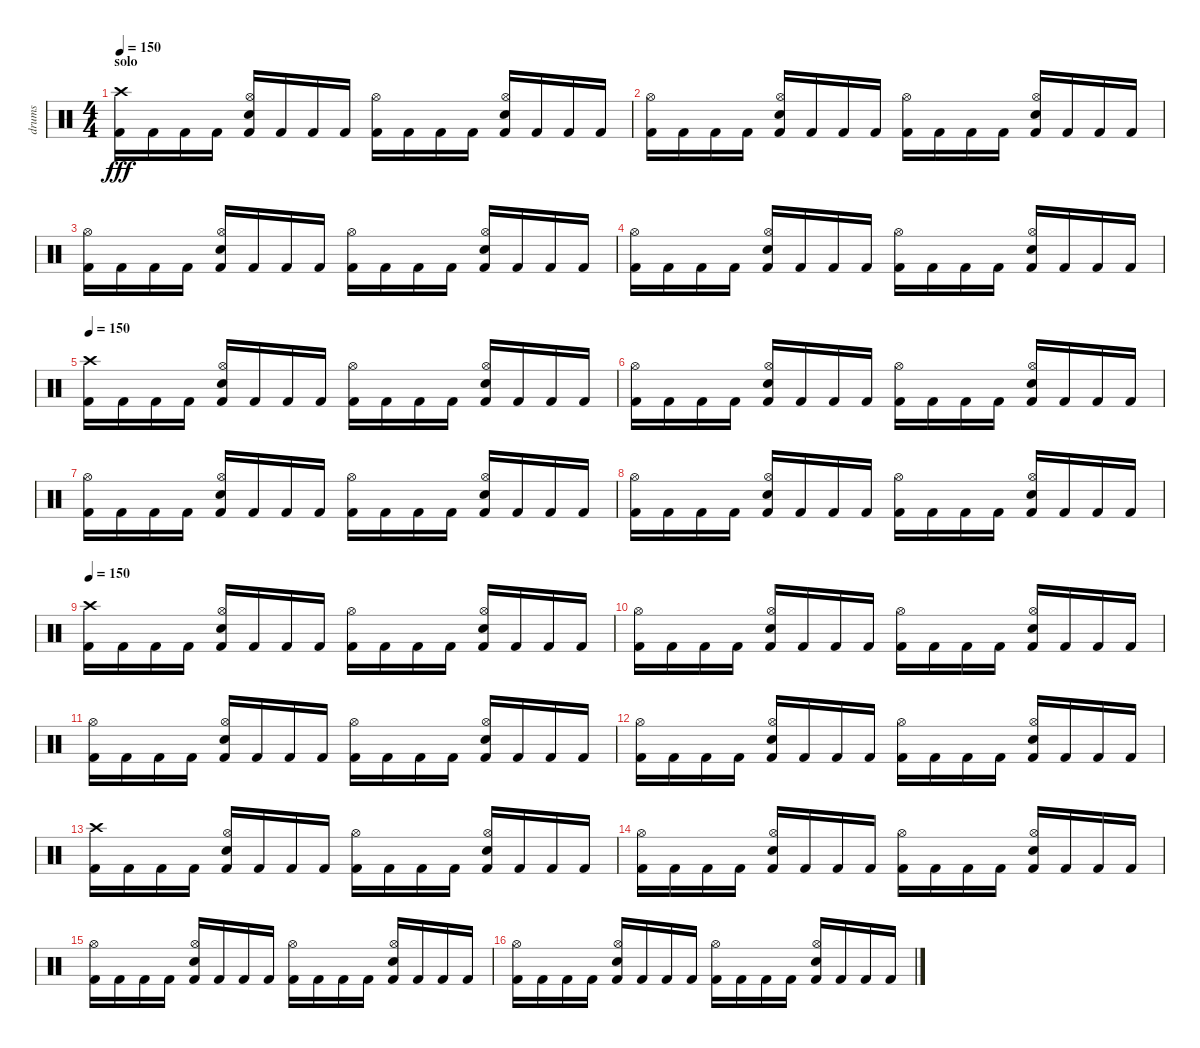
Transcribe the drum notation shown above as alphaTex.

\track ("drums" "drums") {instrument percussion}
\staff {score}
\articulation defaults
\ts (4 4)
\section ("" "solo")
\tempo 150
\clef neutral
\ks c
("Crash high (hit)" "Kick (hit) 2").16{dy fff} "Kick (hit) 2".16 "Kick (hit) 2".16 "Kick (hit) 2".16 ("Hi-Hat (open)" "Snare (hit) 2" "Kick (hit) 2").16 "Kick (hit) 2".16 "Kick (hit) 2".16 "Kick (hit) 2".16 ("Hi-Hat (open)" "Kick (hit) 2").16 "Kick (hit) 2".16 "Kick (hit) 2".16 "Kick (hit) 2".16 ("Hi-Hat (open)" "Snare (hit) 2" "Kick (hit) 2").16 "Kick (hit) 2".16 "Kick (hit) 2".16 "Kick (hit) 2".16 |
("Hi-Hat (open)" "Kick (hit) 2").16 "Kick (hit) 2".16 "Kick (hit) 2".16 "Kick (hit) 2".16 ("Hi-Hat (open)" "Snare (hit) 2" "Kick (hit) 2").16 "Kick (hit) 2".16 "Kick (hit) 2".16 "Kick (hit) 2".16 ("Hi-Hat (open)" "Kick (hit) 2").16 "Kick (hit) 2".16 "Kick (hit) 2".16 "Kick (hit) 2".16 ("Hi-Hat (open)" "Snare (hit) 2" "Kick (hit) 2").16 "Kick (hit) 2".16 "Kick (hit) 2".16 "Kick (hit) 2".16 |
("Hi-Hat (open)" "Kick (hit) 2").16 "Kick (hit) 2".16 "Kick (hit) 2".16 "Kick (hit) 2".16 ("Hi-Hat (open)" "Snare (hit) 2" "Kick (hit) 2").16 "Kick (hit) 2".16 "Kick (hit) 2".16 "Kick (hit) 2".16 ("Hi-Hat (open)" "Kick (hit) 2").16 "Kick (hit) 2".16 "Kick (hit) 2".16 "Kick (hit) 2".16 ("Hi-Hat (open)" "Snare (hit) 2" "Kick (hit) 2").16 "Kick (hit) 2".16 "Kick (hit) 2".16 "Kick (hit) 2".16 |
("Hi-Hat (open)" "Kick (hit) 2").16 "Kick (hit) 2".16 "Kick (hit) 2".16 "Kick (hit) 2".16 ("Hi-Hat (open)" "Snare (hit) 2" "Kick (hit) 2").16 "Kick (hit) 2".16 "Kick (hit) 2".16 "Kick (hit) 2".16 ("Hi-Hat (open)" "Kick (hit) 2").16 "Kick (hit) 2".16 "Kick (hit) 2".16 "Kick (hit) 2".16 ("Hi-Hat (open)" "Snare (hit) 2" "Kick (hit) 2").16 "Kick (hit) 2".16 "Kick (hit) 2".16 "Kick (hit) 2".16 |
\tempo 150
("Crash high (hit)" "Kick (hit) 2").16 "Kick (hit) 2".16 "Kick (hit) 2".16 "Kick (hit) 2".16 ("Hi-Hat (open)" "Snare (hit) 2" "Kick (hit) 2").16 "Kick (hit) 2".16 "Kick (hit) 2".16 "Kick (hit) 2".16 ("Hi-Hat (open)" "Kick (hit) 2").16 "Kick (hit) 2".16 "Kick (hit) 2".16 "Kick (hit) 2".16 ("Hi-Hat (open)" "Snare (hit) 2" "Kick (hit) 2").16 "Kick (hit) 2".16 "Kick (hit) 2".16 "Kick (hit) 2".16 |
("Hi-Hat (open)" "Kick (hit) 2").16 "Kick (hit) 2".16 "Kick (hit) 2".16 "Kick (hit) 2".16 ("Hi-Hat (open)" "Snare (hit) 2" "Kick (hit) 2").16 "Kick (hit) 2".16 "Kick (hit) 2".16 "Kick (hit) 2".16 ("Hi-Hat (open)" "Kick (hit) 2").16 "Kick (hit) 2".16 "Kick (hit) 2".16 "Kick (hit) 2".16 ("Hi-Hat (open)" "Snare (hit) 2" "Kick (hit) 2").16 "Kick (hit) 2".16 "Kick (hit) 2".16 "Kick (hit) 2".16 |
("Hi-Hat (open)" "Kick (hit) 2").16 "Kick (hit) 2".16 "Kick (hit) 2".16 "Kick (hit) 2".16 ("Hi-Hat (open)" "Snare (hit) 2" "Kick (hit) 2").16 "Kick (hit) 2".16 "Kick (hit) 2".16 "Kick (hit) 2".16 ("Hi-Hat (open)" "Kick (hit) 2").16 "Kick (hit) 2".16 "Kick (hit) 2".16 "Kick (hit) 2".16 ("Hi-Hat (open)" "Snare (hit) 2" "Kick (hit) 2").16 "Kick (hit) 2".16 "Kick (hit) 2".16 "Kick (hit) 2".16 |
("Hi-Hat (open)" "Kick (hit) 2").16 "Kick (hit) 2".16 "Kick (hit) 2".16 "Kick (hit) 2".16 ("Hi-Hat (open)" "Snare (hit) 2" "Kick (hit) 2").16 "Kick (hit) 2".16 "Kick (hit) 2".16 "Kick (hit) 2".16 ("Hi-Hat (open)" "Kick (hit) 2").16 "Kick (hit) 2".16 "Kick (hit) 2".16 "Kick (hit) 2".16 ("Hi-Hat (open)" "Snare (hit) 2" "Kick (hit) 2").16 "Kick (hit) 2".16 "Kick (hit) 2".16 "Kick (hit) 2".16 |
\tempo 150
("Crash high (hit)" "Kick (hit) 2").16 "Kick (hit) 2".16 "Kick (hit) 2".16 "Kick (hit) 2".16 ("Hi-Hat (open)" "Snare (hit) 2" "Kick (hit) 2").16 "Kick (hit) 2".16 "Kick (hit) 2".16 "Kick (hit) 2".16 ("Hi-Hat (open)" "Kick (hit) 2").16 "Kick (hit) 2".16 "Kick (hit) 2".16 "Kick (hit) 2".16 ("Hi-Hat (open)" "Snare (hit) 2" "Kick (hit) 2").16 "Kick (hit) 2".16 "Kick (hit) 2".16 "Kick (hit) 2".16 |
("Hi-Hat (open)" "Kick (hit) 2").16 "Kick (hit) 2".16 "Kick (hit) 2".16 "Kick (hit) 2".16 ("Hi-Hat (open)" "Snare (hit) 2" "Kick (hit) 2").16 "Kick (hit) 2".16 "Kick (hit) 2".16 "Kick (hit) 2".16 ("Hi-Hat (open)" "Kick (hit) 2").16 "Kick (hit) 2".16 "Kick (hit) 2".16 "Kick (hit) 2".16 ("Hi-Hat (open)" "Snare (hit) 2" "Kick (hit) 2").16 "Kick (hit) 2".16 "Kick (hit) 2".16 "Kick (hit) 2".16 |
("Hi-Hat (open)" "Kick (hit) 2").16 "Kick (hit) 2".16 "Kick (hit) 2".16 "Kick (hit) 2".16 ("Hi-Hat (open)" "Snare (hit) 2" "Kick (hit) 2").16 "Kick (hit) 2".16 "Kick (hit) 2".16 "Kick (hit) 2".16 ("Hi-Hat (open)" "Kick (hit) 2").16 "Kick (hit) 2".16 "Kick (hit) 2".16 "Kick (hit) 2".16 ("Hi-Hat (open)" "Snare (hit) 2" "Kick (hit) 2").16 "Kick (hit) 2".16 "Kick (hit) 2".16 "Kick (hit) 2".16 |
("Hi-Hat (open)" "Kick (hit) 2").16 "Kick (hit) 2".16 "Kick (hit) 2".16 "Kick (hit) 2".16 ("Hi-Hat (open)" "Snare (hit) 2" "Kick (hit) 2").16 "Kick (hit) 2".16 "Kick (hit) 2".16 "Kick (hit) 2".16 ("Hi-Hat (open)" "Kick (hit) 2").16 "Kick (hit) 2".16 "Kick (hit) 2".16 "Kick (hit) 2".16 ("Hi-Hat (open)" "Snare (hit) 2" "Kick (hit) 2").16 "Kick (hit) 2".16 "Kick (hit) 2".16 "Kick (hit) 2".16 |
("Crash high (hit)" "Kick (hit) 2").16 "Kick (hit) 2".16 "Kick (hit) 2".16 "Kick (hit) 2".16 ("Hi-Hat (open)" "Snare (hit) 2" "Kick (hit) 2").16 "Kick (hit) 2".16 "Kick (hit) 2".16 "Kick (hit) 2".16 ("Hi-Hat (open)" "Kick (hit) 2").16 "Kick (hit) 2".16 "Kick (hit) 2".16 "Kick (hit) 2".16 ("Hi-Hat (open)" "Snare (hit) 2" "Kick (hit) 2").16 "Kick (hit) 2".16 "Kick (hit) 2".16 "Kick (hit) 2".16 |
("Hi-Hat (open)" "Kick (hit) 2").16 "Kick (hit) 2".16 "Kick (hit) 2".16 "Kick (hit) 2".16 ("Hi-Hat (open)" "Snare (hit) 2" "Kick (hit) 2").16 "Kick (hit) 2".16 "Kick (hit) 2".16 "Kick (hit) 2".16 ("Hi-Hat (open)" "Kick (hit) 2").16 "Kick (hit) 2".16 "Kick (hit) 2".16 "Kick (hit) 2".16 ("Hi-Hat (open)" "Snare (hit) 2" "Kick (hit) 2").16 "Kick (hit) 2".16 "Kick (hit) 2".16 "Kick (hit) 2".16 |
("Hi-Hat (open)" "Kick (hit) 2").16 "Kick (hit) 2".16 "Kick (hit) 2".16 "Kick (hit) 2".16 ("Hi-Hat (open)" "Snare (hit) 2" "Kick (hit) 2").16 "Kick (hit) 2".16 "Kick (hit) 2".16 "Kick (hit) 2".16 ("Hi-Hat (open)" "Kick (hit) 2").16 "Kick (hit) 2".16 "Kick (hit) 2".16 "Kick (hit) 2".16 ("Hi-Hat (open)" "Snare (hit) 2" "Kick (hit) 2").16 "Kick (hit) 2".16 "Kick (hit) 2".16 "Kick (hit) 2".16 |
("Hi-Hat (open)" "Kick (hit) 2").16 "Kick (hit) 2".16 "Kick (hit) 2".16 "Kick (hit) 2".16 ("Hi-Hat (open)" "Snare (hit) 2" "Kick (hit) 2").16 "Kick (hit) 2".16 "Kick (hit) 2".16 "Kick (hit) 2".16 ("Hi-Hat (open)" "Kick (hit) 2").16 "Kick (hit) 2".16 "Kick (hit) 2".16 "Kick (hit) 2".16 ("Hi-Hat (open)" "Snare (hit) 2" "Kick (hit) 2").16 "Kick (hit) 2".16 "Kick (hit) 2".16 "Kick (hit) 2".16
